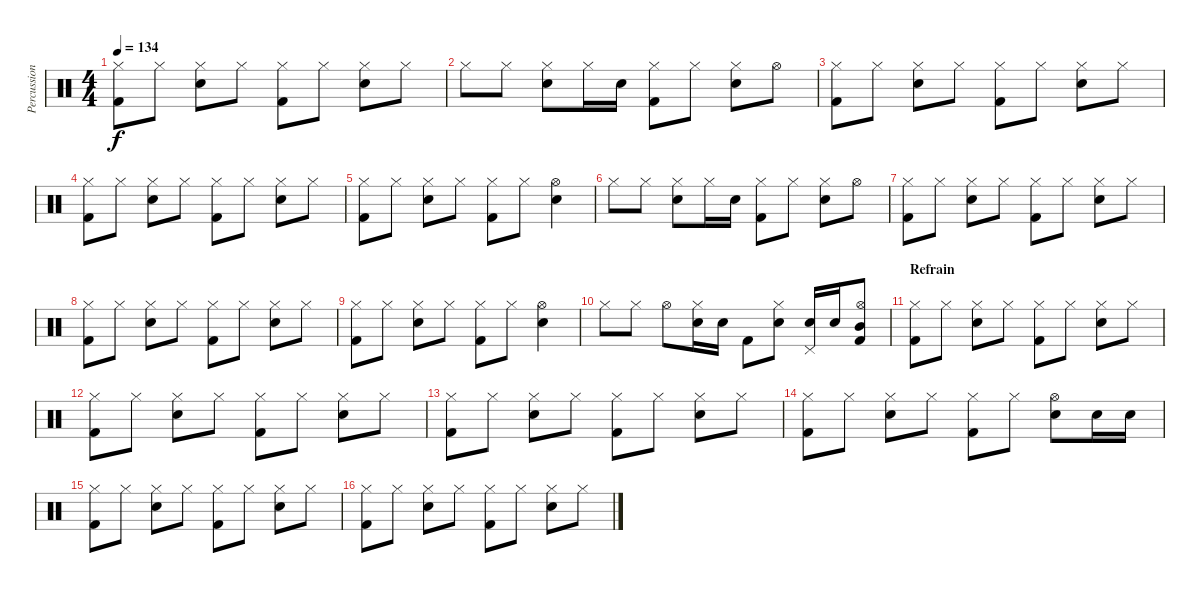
\track ("Percussion" "Percussion") {instrument percussion}
\staff {score}
\articulation defaults
\ts (4 4)
\tempo 134
\clef neutral
\ks c
("Hi-Hat (closed)" "Kick (hit) 2").8{dy f} "Hi-Hat (closed)".8 ("Hi-Hat (closed)" "Snare (hit) 2").8 "Hi-Hat (closed)".8 ("Hi-Hat (closed)" "Kick (hit) 2").8 "Hi-Hat (closed)".8 ("Hi-Hat (closed)" "Snare (hit) 2").8 "Hi-Hat (closed)".8 |
"Hi-Hat (closed)".8 "Hi-Hat (closed)".8 ("Hi-Hat (closed)" "Snare (hit) 2").8 "Hi-Hat (closed)".16 "Snare (hit) 2".16 ("Hi-Hat (closed)" "Kick (hit) 2").8 "Hi-Hat (closed)".8 ("Hi-Hat (closed)" "Snare (hit) 2").8 "Hi-Hat (open)".8 |
("Hi-Hat (closed)" "Kick (hit) 2").8 "Hi-Hat (closed)".8 ("Hi-Hat (closed)" "Snare (hit) 2").8 "Hi-Hat (closed)".8 ("Hi-Hat (closed)" "Kick (hit) 2").8 "Hi-Hat (closed)".8 ("Hi-Hat (closed)" "Snare (hit) 2").8 "Hi-Hat (closed)".8 |
("Hi-Hat (closed)" "Kick (hit) 2").8 "Hi-Hat (closed)".8 ("Hi-Hat (closed)" "Snare (hit) 2").8 "Hi-Hat (closed)".8 ("Hi-Hat (closed)" "Kick (hit) 2").8 "Hi-Hat (closed)".8 ("Hi-Hat (closed)" "Snare (hit) 2").8 "Hi-Hat (closed)".8 |
("Hi-Hat (closed)" "Kick (hit) 2").8 "Hi-Hat (closed)".8 ("Hi-Hat (closed)" "Snare (hit) 2").8 "Hi-Hat (closed)".8 ("Hi-Hat (closed)" "Kick (hit) 2").8 "Hi-Hat (closed)".8 ("Hi-Hat (open)" "Snare (hit) 2").4 |
"Hi-Hat (closed)".8 "Hi-Hat (closed)".8 ("Hi-Hat (closed)" "Snare (hit) 2").8 "Hi-Hat (closed)".16 "Snare (hit) 2".16 ("Hi-Hat (closed)" "Kick (hit) 2").8 "Hi-Hat (closed)".8 ("Hi-Hat (closed)" "Snare (hit) 2").8 "Hi-Hat (open)".8 |
("Hi-Hat (closed)" "Kick (hit) 2").8 "Hi-Hat (closed)".8 ("Hi-Hat (closed)" "Snare (hit) 2").8 "Hi-Hat (closed)".8 ("Hi-Hat (closed)" "Kick (hit) 2").8 "Hi-Hat (closed)".8 ("Hi-Hat (closed)" "Snare (hit) 2").8 "Hi-Hat (closed)".8 |
("Hi-Hat (closed)" "Kick (hit) 2").8 "Hi-Hat (closed)".8 ("Hi-Hat (closed)" "Snare (hit) 2").8 "Hi-Hat (closed)".8 ("Hi-Hat (closed)" "Kick (hit) 2").8 "Hi-Hat (closed)".8 ("Hi-Hat (closed)" "Snare (hit) 2").8 "Hi-Hat (closed)".8 |
("Hi-Hat (closed)" "Kick (hit) 2").8 "Hi-Hat (closed)".8 ("Hi-Hat (closed)" "Snare (hit) 2").8 "Hi-Hat (closed)".8 ("Hi-Hat (closed)" "Kick (hit) 2").8 "Hi-Hat (closed)".8 ("Hi-Hat (open)" "Snare (hit) 2").4 |
"Hi-Hat (closed)".8 "Hi-Hat (closed)".8 "Hi-Hat (open)".8 ("Hi-Hat (closed)" "Snare (hit) 2").16 "Snare (hit) 2".16 "Kick (hit) 2".8 ("Hi-Hat (closed)" "Snare (hit) 2").8 ("Pedal Hi-Hat (hit)" "Snare (hit) 2").16 "Snare (hit) 2".16 ("Hi-Hat (open)" "Mid Tom (hit)" "Kick (hit) 2").8 |
\section ("" "Refrain")
("Hi-Hat (closed)" "Kick (hit) 2").8 "Hi-Hat (closed)".8 ("Hi-Hat (closed)" "Snare (hit) 2").8 "Hi-Hat (closed)".8 ("Hi-Hat (closed)" "Kick (hit) 2").8 "Hi-Hat (closed)".8 ("Hi-Hat (closed)" "Snare (hit) 2").8 "Hi-Hat (closed)".8 |
("Hi-Hat (closed)" "Kick (hit) 2").8 "Hi-Hat (closed)".8 ("Hi-Hat (closed)" "Snare (hit) 2").8 "Hi-Hat (closed)".8 ("Hi-Hat (closed)" "Kick (hit) 2").8 "Hi-Hat (closed)".8 ("Hi-Hat (closed)" "Snare (hit) 2").8 "Hi-Hat (closed)".8 |
("Hi-Hat (closed)" "Kick (hit) 2").8 "Hi-Hat (closed)".8 ("Hi-Hat (closed)" "Snare (hit) 2").8 "Hi-Hat (closed)".8 ("Hi-Hat (closed)" "Kick (hit) 2").8 "Hi-Hat (closed)".8 ("Hi-Hat (closed)" "Snare (hit) 2").8 "Hi-Hat (closed)".8 |
("Hi-Hat (closed)" "Kick (hit) 2").8 "Hi-Hat (closed)".8 ("Hi-Hat (closed)" "Snare (hit) 2").8 "Hi-Hat (closed)".8 ("Hi-Hat (closed)" "Kick (hit) 2").8 "Hi-Hat (closed)".8 ("Hi-Hat (open)" "Snare (hit) 2").8 "Snare (hit) 2".16 "Snare (hit) 2".16 |
("Hi-Hat (closed)" "Kick (hit) 2").8 "Hi-Hat (closed)".8 ("Hi-Hat (closed)" "Snare (hit) 2").8 "Hi-Hat (closed)".8 ("Hi-Hat (closed)" "Kick (hit) 2").8 "Hi-Hat (closed)".8 ("Hi-Hat (closed)" "Snare (hit) 2").8 "Hi-Hat (closed)".8 |
("Hi-Hat (closed)" "Kick (hit) 2").8 "Hi-Hat (closed)".8 ("Hi-Hat (closed)" "Snare (hit) 2").8 "Hi-Hat (closed)".8 ("Hi-Hat (closed)" "Kick (hit) 2").8 "Hi-Hat (closed)".8 ("Hi-Hat (closed)" "Snare (hit) 2").8 "Hi-Hat (closed)".8
